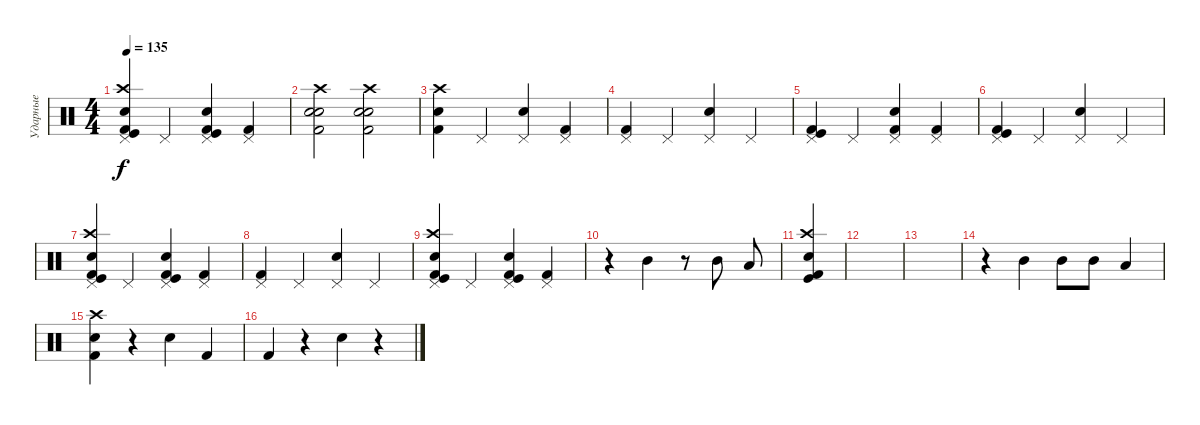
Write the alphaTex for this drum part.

\track ("Ударные" "Ударные") {instrument percussion}
\staff {score}
\articulation defaults
\ts (4 4)
\tempo 135
\clef neutral
\ks c
("Pedal Hi-Hat (hit)" "Kick (hit)" "Crash high (hit)" "Snare (hit) 2" "Kick (hit) 2").4{dy f} "Pedal Hi-Hat (hit)".4 ("Kick (hit)" "Pedal Hi-Hat (hit)" "Electric Snare (hit)" "Kick (hit) 2").4 ("Pedal Hi-Hat (hit)" "Kick (hit) 2").4 |
("Kick (hit) 2" "Snare (hit) 2" "Crash high (hit)" "Electric Snare (hit)").2 ("Kick (hit) 2" "Snare (hit) 2" "Crash high (hit)" "Electric Snare (hit)").2 |
("Kick (hit) 2" "Snare (hit) 2" "Crash high (hit)").4 "Pedal Hi-Hat (hit)".4 ("Electric Snare (hit)" "Pedal Hi-Hat (hit)").4 ("Kick (hit) 2" "Pedal Hi-Hat (hit)").4 |
("Pedal Hi-Hat (hit)" "Kick (hit) 2").4 "Pedal Hi-Hat (hit)".4 ("Pedal Hi-Hat (hit)" "Electric Snare (hit)").4 "Pedal Hi-Hat (hit)".4 |
("Pedal Hi-Hat (hit)" "Kick (hit) 2" "Kick (hit)").4 "Pedal Hi-Hat (hit)".4 ("Pedal Hi-Hat (hit)" "Electric Snare (hit)" "Kick (hit) 2").4 ("Pedal Hi-Hat (hit)" "Kick (hit) 2").4 |
("Kick (hit) 2" "Kick (hit)" "Pedal Hi-Hat (hit)").4 "Pedal Hi-Hat (hit)".4 ("Electric Snare (hit)" "Pedal Hi-Hat (hit)").4 "Pedal Hi-Hat (hit)".4 |
("Pedal Hi-Hat (hit)" "Kick (hit)" "Crash high (hit)" "Snare (hit) 2" "Kick (hit) 2").4 "Pedal Hi-Hat (hit)".4 ("Kick (hit)" "Pedal Hi-Hat (hit)" "Electric Snare (hit)" "Kick (hit) 2").4 ("Pedal Hi-Hat (hit)" "Kick (hit) 2").4 |
("Pedal Hi-Hat (hit)" "Kick (hit) 2").4 "Pedal Hi-Hat (hit)".4 ("Pedal Hi-Hat (hit)" "Electric Snare (hit)").4 "Pedal Hi-Hat (hit)".4 |
("Pedal Hi-Hat (hit)" "Kick (hit)" "Crash high (hit)" "Snare (hit) 2" "Kick (hit) 2").4 "Pedal Hi-Hat (hit)".4 ("Kick (hit)" "Pedal Hi-Hat (hit)" "Electric Snare (hit)" "Kick (hit) 2").4 ("Pedal Hi-Hat (hit)" "Kick (hit) 2").4 |
r.4 "Mid Tom (hit)".4 r.8 "Mid Tom (hit)".8 "Low Tom (hit)".8 |
("Crash high (hit)" "Kick (hit) 2" "Kick (hit)" "Snare (hit) 2").4 |
|
|
r.4 "Mid Tom (hit)".4 "Mid Tom (hit)".8 "Mid Tom (hit)".8 "Low Tom (hit)".4 |
("Kick (hit) 2" "Snare (hit) 2" "Crash high (hit)").4 r.4 "Electric Snare (hit)".4 "Kick (hit) 2".4 |
"Kick (hit) 2".4 r.4 "Electric Snare (hit)".4 r.4
